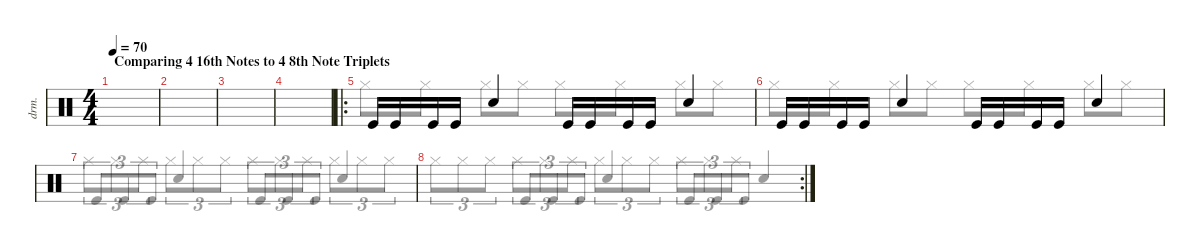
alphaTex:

\defaultSystemsLayout 4
\hideDynamics
\bracketExtendMode nobrackets
\track ("Drumkit" "drm.") {instrument percussion}
\staff {score}
\articulation defaults
\voice
\ts (4 4)
\beaming (8 2 2 2 2)
\section ("" "Comparing 4 16th Notes to 4 8th Note Triplets")
\tempo 70
\clef neutral
\ks aminor
|
|
|
|
\ro
\section ("" "")
"Kick (hit)".16{beam Up} "Kick (hit)".16{beam Up} "Kick (hit)".16{beam Up} "Kick (hit)".16{beam Up} "Snare (hit) 2".4{beam Up} "Kick (hit)".16{beam Up} "Kick (hit)".16{beam Up} "Kick (hit)".16{beam Up} "Kick (hit)".16{beam Up} "Snare (hit) 2".4{beam Up} |
"Kick (hit)".16{beam Up} "Kick (hit)".16{beam Up} "Kick (hit)".16{beam Up} "Kick (hit)".16{beam Up} "Snare (hit) 2".4{beam Up} "Kick (hit)".16{beam Up} "Kick (hit)".16{beam Up} "Kick (hit)".16{beam Up} "Kick (hit)".16{beam Up} "Snare (hit) 2".4{beam Up} |
|
\rc 2
\voice
\clef neutral
\ottava regular
\simile none
\ks aminor
|
|
|
|
"Hi-Hat (closed)".8{beam Down} "Hi-Hat (closed)".8{beam Down} "Hi-Hat (closed)".8{beam Down} "Hi-Hat (closed)".8{beam Down} "Hi-Hat (closed)".8{beam Down} "Hi-Hat (closed)".8{beam Down} "Hi-Hat (closed)".8{beam Down} "Hi-Hat (closed)".8{beam Down} |
"Hi-Hat (closed)".8{beam Down} "Hi-Hat (closed)".8{beam Down} "Hi-Hat (closed)".8{beam Down} "Hi-Hat (closed)".8{beam Down} "Hi-Hat (closed)".8{beam Down} "Hi-Hat (closed)".8{beam Down} "Hi-Hat (closed)".8{beam Down} "Hi-Hat (closed)".8{beam Down} |
"Kick (hit)".8{tu (3 2) beam Up} "Kick (hit)".8{tu (3 2) beam Up} "Kick (hit)".8{tu (3 2) beam Up} "Snare (hit) 2".4{beam Up} "Kick (hit)".8{tu (3 2) beam Up} "Kick (hit)".8{tu (3 2) beam Up} "Kick (hit)".8{tu (3 2) beam Up} "Snare (hit) 2".4{beam Up} |
"Kick (hit)".8{tu (3 2) beam Up} "Kick (hit)".8{tu (3 2) beam Up} "Kick (hit)".8{tu (3 2) beam Up} "Snare (hit) 2".4{beam Up} "Kick (hit)".8{tu (3 2) beam Up} "Kick (hit)".8{tu (3 2) beam Up} "Kick (hit)".8{tu (3 2) beam Up} "Snare (hit) 2".4{beam Up}
\voice
\clef neutral
\ottava regular
\simile none
\ks aminor
|
|
|
|
|
|
"Hi-Hat (closed)".8{tu (3 2) beam Down} "Hi-Hat (closed)".8{tu (3 2) beam Down} "Hi-Hat (closed)".8{tu (3 2) beam Down} "Hi-Hat (closed)".8{tu (3 2) beam Down} "Hi-Hat (closed)".8{tu (3 2) beam Down} "Hi-Hat (closed)".8{tu (3 2) beam Down} "Hi-Hat (closed)".8{tu (3 2) beam Down} "Hi-Hat (closed)".8{tu (3 2) beam Down} "Hi-Hat (closed)".8{tu (3 2) beam Down} "Hi-Hat (closed)".8{tu (3 2) beam Down} "Hi-Hat (closed)".8{tu (3 2) beam Down} "Hi-Hat (closed)".8{tu (3 2) beam Down} |
"Hi-Hat (closed)".8{tu (3 2) beam Down} "Hi-Hat (closed)".8{tu (3 2) beam Down} "Hi-Hat (closed)".8{tu (3 2) beam Down} "Hi-Hat (closed)".8{tu (3 2) beam Down} "Hi-Hat (closed)".8{tu (3 2) beam Down} "Hi-Hat (closed)".8{tu (3 2) beam Down} "Hi-Hat (closed)".8{tu (3 2) beam Down} "Hi-Hat (closed)".8{tu (3 2) beam Down} "Hi-Hat (closed)".8{tu (3 2) beam Down} "Hi-Hat (closed)".8{tu (3 2) beam Down} "Hi-Hat (closed)".8{tu (3 2) beam Down} "Hi-Hat (closed)".8{tu (3 2) beam Down}
